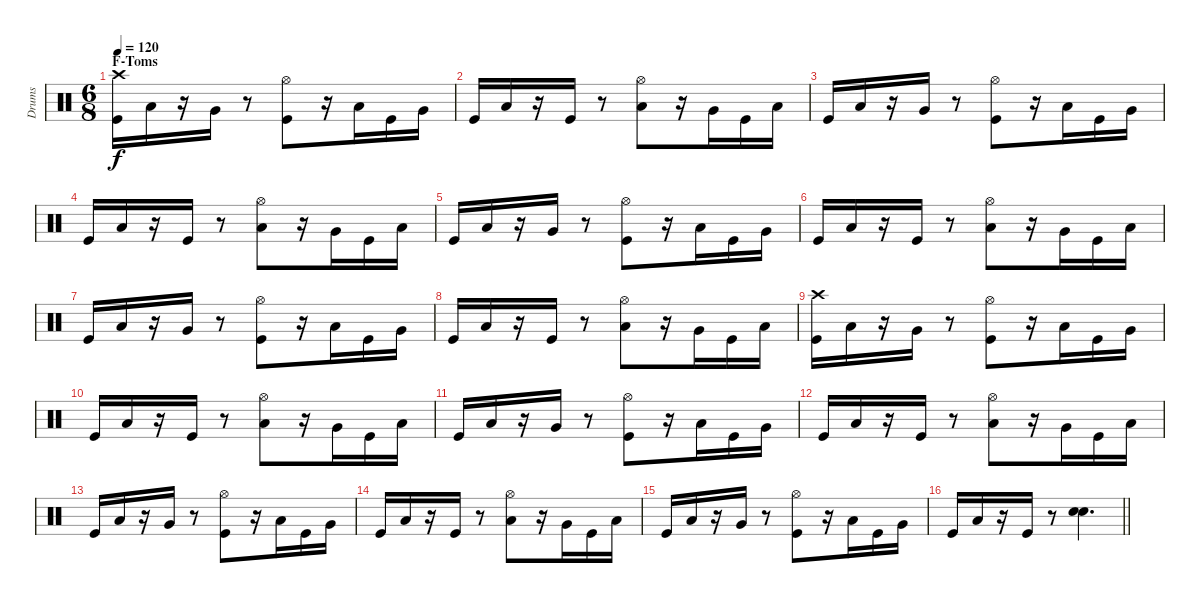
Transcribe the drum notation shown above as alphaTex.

\track ("Drums" "Drums") {instrument percussion}
\staff {score}
\articulation defaults
\ts (6 8)
\section ("" "F-Toms")
\tempo 120
\clef neutral
\ks c
("Kick (hit)" "Crash high (hit)").16{dy f} "Low Floor Tom (hit)".16 r.16 "Very Low Tom (hit)".16 r.8 ("Hi-Hat (open)" "Kick (hit)").8 r.16 "Low Floor Tom (hit)".16 "Kick (hit)".16 "Very Low Tom (hit)".16 |
"Kick (hit)".16 "Low Floor Tom (hit)".16 r.16 "Kick (hit)".16 r.8 ("Hi-Hat (open)" "Low Floor Tom (hit)").8 r.16 "Very Low Tom (hit)".16 "Kick (hit)".16 "Low Floor Tom (hit)".16 |
"Kick (hit)".16 "Low Floor Tom (hit)".16 r.16 "Very Low Tom (hit)".16 r.8 ("Hi-Hat (open)" "Kick (hit)").8 r.16 "Low Floor Tom (hit)".16 "Kick (hit)".16 "Very Low Tom (hit)".16 |
"Kick (hit)".16 "Low Floor Tom (hit)".16 r.16 "Kick (hit)".16 r.8 ("Hi-Hat (open)" "Low Floor Tom (hit)").8 r.16 "Very Low Tom (hit)".16 "Kick (hit)".16 "Low Floor Tom (hit)".16 |
"Kick (hit)".16 "Low Floor Tom (hit)".16 r.16 "Very Low Tom (hit)".16 r.8 ("Hi-Hat (open)" "Kick (hit)").8 r.16 "Low Floor Tom (hit)".16 "Kick (hit)".16 "Very Low Tom (hit)".16 |
"Kick (hit)".16 "Low Floor Tom (hit)".16 r.16 "Kick (hit)".16 r.8 ("Hi-Hat (open)" "Low Floor Tom (hit)").8 r.16 "Very Low Tom (hit)".16 "Kick (hit)".16 "Low Floor Tom (hit)".16 |
"Kick (hit)".16 "Low Floor Tom (hit)".16 r.16 "Very Low Tom (hit)".16 r.8 ("Hi-Hat (open)" "Kick (hit)").8 r.16 "Low Floor Tom (hit)".16 "Kick (hit)".16 "Very Low Tom (hit)".16 |
"Kick (hit)".16 "Low Floor Tom (hit)".16 r.16 "Kick (hit)".16 r.8 ("Hi-Hat (open)" "Low Floor Tom (hit)").8 r.16 "Very Low Tom (hit)".16 "Kick (hit)".16 "Low Floor Tom (hit)".16 |
("Kick (hit)" "Crash high (hit)").16 "Low Floor Tom (hit)".16 r.16 "Very Low Tom (hit)".16 r.8 ("Hi-Hat (open)" "Kick (hit)").8 r.16 "Low Floor Tom (hit)".16 "Kick (hit)".16 "Very Low Tom (hit)".16 |
"Kick (hit)".16 "Low Floor Tom (hit)".16 r.16 "Kick (hit)".16 r.8 ("Hi-Hat (open)" "Low Floor Tom (hit)").8 r.16 "Very Low Tom (hit)".16 "Kick (hit)".16 "Low Floor Tom (hit)".16 |
"Kick (hit)".16 "Low Floor Tom (hit)".16 r.16 "Very Low Tom (hit)".16 r.8 ("Hi-Hat (open)" "Kick (hit)").8 r.16 "Low Floor Tom (hit)".16 "Kick (hit)".16 "Very Low Tom (hit)".16 |
"Kick (hit)".16 "Low Floor Tom (hit)".16 r.16 "Kick (hit)".16 r.8 ("Hi-Hat (open)" "Low Floor Tom (hit)").8 r.16 "Very Low Tom (hit)".16 "Kick (hit)".16 "Low Floor Tom (hit)".16 |
"Kick (hit)".16 "Low Floor Tom (hit)".16 r.16 "Very Low Tom (hit)".16 r.8 ("Hi-Hat (open)" "Kick (hit)").8 r.16 "Low Floor Tom (hit)".16 "Kick (hit)".16 "Very Low Tom (hit)".16 |
"Kick (hit)".16 "Low Floor Tom (hit)".16 r.16 "Kick (hit)".16 r.8 ("Hi-Hat (open)" "Low Floor Tom (hit)").8 r.16 "Very Low Tom (hit)".16 "Kick (hit)".16 "Low Floor Tom (hit)".16 |
"Kick (hit)".16 "Low Floor Tom (hit)".16 r.16 "Very Low Tom (hit)".16 r.8 ("Hi-Hat (open)" "Kick (hit)").8 r.16 "Low Floor Tom (hit)".16 "Kick (hit)".16 "Very Low Tom (hit)".16 |
\barLineRight lightlight "Kick (hit)".16 "Low Floor Tom (hit)".16
r.16 "Kick (hit)".16 r.8 ("Electric Snare (hit)" "Electric Snare (hit)").4{d bd 60}
